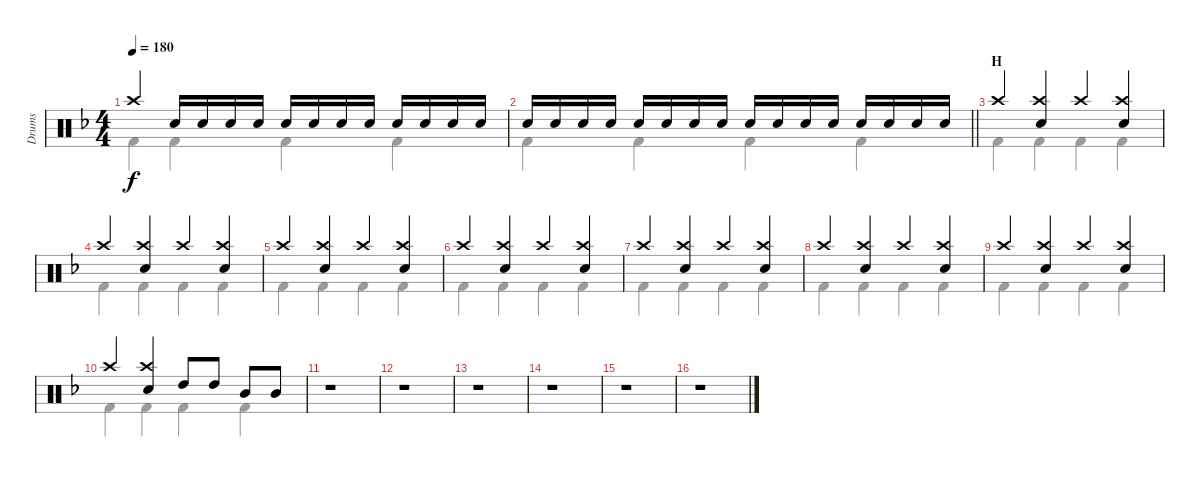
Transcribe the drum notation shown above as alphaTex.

\track ("Drums" "Drums") {instrument percussion}
\staff {score}
\articulation defaults
\voice
\ts (4 4)
\tempo 180
\clef neutral
\ks f "Crash high (hit)".4{dy f} "Snare (hit) 2".16 "Snare (hit) 2".16 "Snare (hit) 2".16 "Snare (hit) 2".16 "Snare (hit) 2".16 "Snare (hit) 2".16 "Snare (hit) 2".16 "Snare (hit) 2".16 "Snare (hit) 2".16 "Snare (hit) 2".16 "Snare (hit) 2".16 "Snare (hit) 2".16
|
\barLineRight lightlight "Snare (hit) 2".16 "Snare (hit) 2".16 "Snare (hit) 2".16 "Snare (hit) 2".16 "Snare (hit) 2".16 "Snare (hit) 2".16 "Snare (hit) 2".16 "Snare (hit) 2".16 "Snare (hit) 2".16 "Snare (hit) 2".16 "Snare (hit) 2".16 "Snare (hit) 2".16 "Snare (hit) 2".16 "Snare (hit) 2".16 "Snare (hit) 2".16 "Snare (hit) 2".16
|
\section ("" "H")
"Crash high (hit)".4 ("Crash high (hit)" "Snare (hit) 2").4 "Crash high (hit)".4 ("Crash high (hit)" "Snare (hit) 2").4 |
"Crash high (hit)".4 ("Crash high (hit)" "Snare (hit) 2").4 "Crash high (hit)".4 ("Crash high (hit)" "Snare (hit) 2").4 |
"Crash high (hit)".4 ("Crash high (hit)" "Snare (hit) 2").4 "Crash high (hit)".4 ("Crash high (hit)" "Snare (hit) 2").4 |
"Crash high (hit)".4 ("Crash high (hit)" "Snare (hit) 2").4 "Crash high (hit)".4 ("Crash high (hit)" "Snare (hit) 2").4 |
"Crash high (hit)".4 ("Crash high (hit)" "Snare (hit) 2").4 "Crash high (hit)".4 ("Crash high (hit)" "Snare (hit) 2").4 |
"Crash high (hit)".4 ("Crash high (hit)" "Snare (hit) 2").4 "Crash high (hit)".4 ("Crash high (hit)" "Snare (hit) 2").4 |
"Crash high (hit)".4 ("Crash high (hit)" "Snare (hit) 2").4 "Crash high (hit)".4 ("Crash high (hit)" "Snare (hit) 2").4 |
"Crash high (hit)".4 ("Crash high (hit)" "Snare (hit) 2").4 "High Tom (hit)".8 "High Tom (hit)".8 "Mid Tom (hit)".8 "Mid Tom (hit)".8 |
r.1 |
r.1 |
r.1 |
r.1 |
r.1 |
r.1
\voice
\clef neutral
\ottava regular
\simile none
\ks f "Kick (hit) 2".4{dy f} "Kick (hit) 2".4 "Kick (hit) 2".4 "Kick (hit) 2".4
|
\barLineRight lightlight "Kick (hit) 2".4 "Kick (hit) 2".4 "Kick (hit) 2".4 "Kick (hit) 2".4
|
"Kick (hit) 2".4 "Kick (hit) 2".4 "Kick (hit) 2".4 "Kick (hit) 2".4 |
"Kick (hit) 2".4 "Kick (hit) 2".4 "Kick (hit) 2".4 "Kick (hit) 2".4 |
"Kick (hit) 2".4 "Kick (hit) 2".4 "Kick (hit) 2".4 "Kick (hit) 2".4 |
"Kick (hit) 2".4 "Kick (hit) 2".4 "Kick (hit) 2".4 "Kick (hit) 2".4 |
"Kick (hit) 2".4 "Kick (hit) 2".4 "Kick (hit) 2".4 "Kick (hit) 2".4 |
"Kick (hit) 2".4 "Kick (hit) 2".4 "Kick (hit) 2".4 "Kick (hit) 2".4 |
"Kick (hit) 2".4 "Kick (hit) 2".4 "Kick (hit) 2".4 "Kick (hit) 2".4 |
"Kick (hit) 2".4 "Kick (hit) 2".4 "Kick (hit) 2".4 "Kick (hit) 2".4 |
r.1 |
r.1 |
r.1 |
r.1 |
r.1 |
r.1
